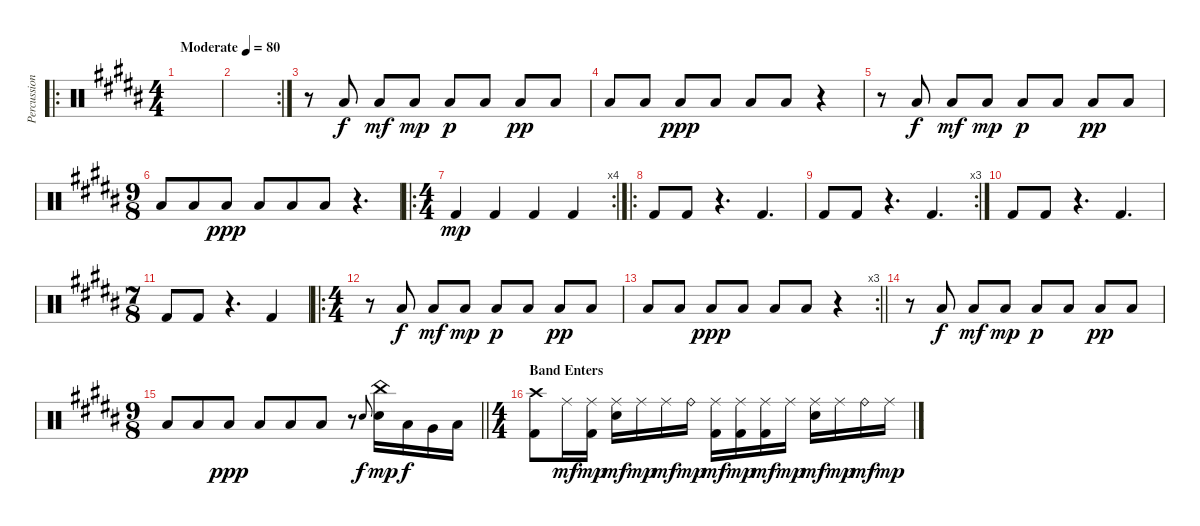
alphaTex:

\track ("Percussion" "Percussion") {instrument percussion}
\staff {score}
\articulation defaults
\ro
\ts (4 4)
\tempo (80 "Moderate")
\clef neutral
\ks b
|
\rc 2
|
r.8 "Low Floor Tom (hit)".8 "Low Floor Tom (hit)".8{dy mf} "Low Floor Tom (hit)".8{dy mp} "Low Floor Tom (hit)".8{dy p} "Low Floor Tom (hit)".8 "Low Floor Tom (hit)".8{dy pp} "Low Floor Tom (hit)".8 |
"Low Floor Tom (hit)".8 "Low Floor Tom (hit)".8 "Low Floor Tom (hit)".8{dy ppp} "Low Floor Tom (hit)".8 "Low Floor Tom (hit)".8 "Low Floor Tom (hit)".8 r.4 |
r.8 "Low Floor Tom (hit)".8{dy f} "Low Floor Tom (hit)".8{dy mf} "Low Floor Tom (hit)".8{dy mp} "Low Floor Tom (hit)".8{dy p} "Low Floor Tom (hit)".8 "Low Floor Tom (hit)".8{dy pp} "Low Floor Tom (hit)".8 |
\ts (9 8)
"Low Floor Tom (hit)".8 "Low Floor Tom (hit)".8 "Low Floor Tom (hit)".8{dy ppp} "Low Floor Tom (hit)".8 "Low Floor Tom (hit)".8 "Low Floor Tom (hit)".8 r.4{d} |
\ro
\rc 4
\ts (4 4)
"Kick (hit) 2".4{dy mp} "Kick (hit) 2".4 "Kick (hit) 2".4 "Kick (hit) 2".4 |
\ro "Kick (hit) 2".8 "Kick (hit) 2".8
r.4{d} "Kick (hit) 2".4{d} |
\rc 3 "Kick (hit) 2".8 "Kick (hit) 2".8
r.4{d} "Kick (hit) 2".4{d} |
"Kick (hit) 2".8 "Kick (hit) 2".8 r.4{d} "Kick (hit) 2".4{d} |
\ts (7 8)
"Kick (hit) 2".8 "Kick (hit) 2".8 r.4{d} "Kick (hit) 2".4 |
\ro
\ts (4 4)
r.8 "Low Floor Tom (hit)".8{dy f} "Low Floor Tom (hit)".8{dy mf} "Low Floor Tom (hit)".8{dy mp} "Low Floor Tom (hit)".8{dy p} "Low Floor Tom (hit)".8 "Low Floor Tom (hit)".8{dy pp} "Low Floor Tom (hit)".8 |
\rc 3
\barLineRight lightlight "Low Floor Tom (hit)".8 "Low Floor Tom (hit)".8 "Low Floor Tom (hit)".8{dy ppp} "Low Floor Tom (hit)".8 "Low Floor Tom (hit)".8 "Low Floor Tom (hit)".8
r.4 |
r.8 "Low Floor Tom (hit)".8{dy f} "Low Floor Tom (hit)".8{dy mf} "Low Floor Tom (hit)".8{dy mp} "Low Floor Tom (hit)".8{dy p} "Low Floor Tom (hit)".8 "Low Floor Tom (hit)".8{dy pp} "Low Floor Tom (hit)".8 |
\ts (9 8)
\barLineRight lightlight "Low Floor Tom (hit)".8 "Low Floor Tom (hit)".8 "Low Floor Tom (hit)".8{dy ppp} "Low Floor Tom (hit)".8 "Low Floor Tom (hit)".8 "Low Floor Tom (hit)".8
r.8 "Snare (hit) 2".8{gr onbeat dy f} ("China (hit)" "Snare (hit) 2").16{dy mp} "Low Tom (hit)".16{dy f} "Very Low Tom (hit)".16 "Low Floor Tom (hit)".16 |
\ts (4 4)
\section ("" "Band Enters")
("Crash high (hit)" "Kick (hit) 2").8 "Ride (middle)".16{dy mf} ("Ride (middle)" "Kick (hit) 2").16{dy mp} ("Ride (middle)" "Snare (hit) 2").16{dy mf} "Ride (middle)".16{dy mp} "Ride (middle)".16{dy mf} "Ride (bell)".16{dy mp} ("Ride (middle)" "Kick (hit) 2").16{dy mf} ("Ride (middle)" "Kick (hit) 2").16{dy mp} ("Ride (middle)" "Kick (hit) 2").16{dy mf} "Ride (middle)".16{dy mp} ("Ride (middle)" "Snare (hit) 2").16{dy mf} "Ride (middle)".16{dy mp} "Ride (bell)".16{dy mf} "Ride (middle)".16{dy mp}
